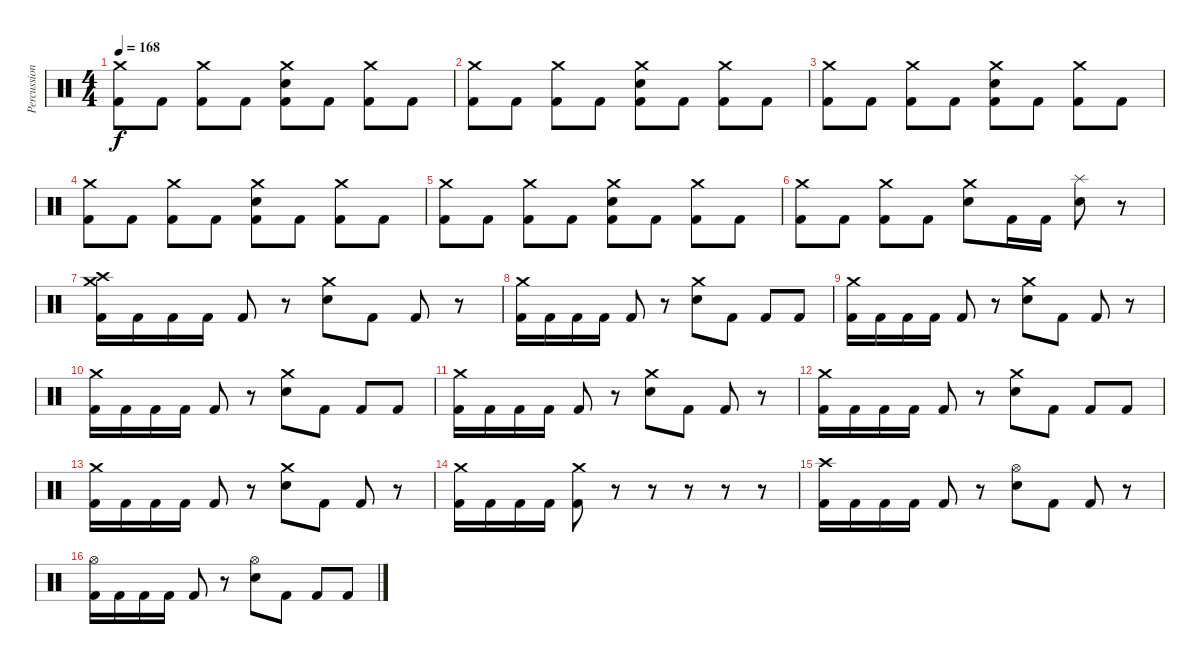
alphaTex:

\track ("Percussion" "Percussion") {instrument percussion}
\staff {score}
\articulation defaults
\ts (4 4)
\tempo 168
\clef neutral
\ks c
("Crash medium (hit)" "Kick (hit) 2").8{dy f} "Kick (hit) 2".8 ("Crash medium (hit)" "Kick (hit) 2").8 "Kick (hit) 2".8 ("Crash medium (hit)" "Snare (hit) 2" "Kick (hit) 2").8 "Kick (hit) 2".8 ("Crash medium (hit)" "Kick (hit) 2").8 "Kick (hit) 2".8 |
("Crash medium (hit)" "Kick (hit) 2").8 "Kick (hit) 2".8 ("Crash medium (hit)" "Kick (hit) 2").8 "Kick (hit) 2".8 ("Crash medium (hit)" "Snare (hit) 2" "Kick (hit) 2").8 "Kick (hit) 2".8 ("Crash medium (hit)" "Kick (hit) 2").8 "Kick (hit) 2".8 |
("Crash medium (hit)" "Kick (hit) 2").8 "Kick (hit) 2".8 ("Crash medium (hit)" "Kick (hit) 2").8 "Kick (hit) 2".8 ("Crash medium (hit)" "Snare (hit) 2" "Kick (hit) 2").8 "Kick (hit) 2".8 ("Crash medium (hit)" "Kick (hit) 2").8 "Kick (hit) 2".8 |
("Crash medium (hit)" "Kick (hit) 2").8 "Kick (hit) 2".8 ("Crash medium (hit)" "Kick (hit) 2").8 "Kick (hit) 2".8 ("Crash medium (hit)" "Snare (hit) 2" "Kick (hit) 2").8 "Kick (hit) 2".8 ("Crash medium (hit)" "Kick (hit) 2").8 "Kick (hit) 2".8 |
("Crash medium (hit)" "Kick (hit) 2").8 "Kick (hit) 2".8 ("Crash medium (hit)" "Kick (hit) 2").8 "Kick (hit) 2".8 ("Crash medium (hit)" "Snare (hit) 2" "Kick (hit) 2").8 "Kick (hit) 2".8 ("Crash medium (hit)" "Kick (hit) 2").8 "Kick (hit) 2".8 |
("Crash medium (hit)" "Kick (hit) 2").8 "Kick (hit) 2".8 ("Crash medium (hit)" "Kick (hit) 2").8 "Kick (hit) 2".8 ("Crash medium (hit)" "Snare (hit) 2").8 "Kick (hit) 2".16 "Kick (hit) 2".16 ("Splash (hit)" "Snare (hit) 2").8 r.8 |
("Crash high (hit)" "Crash medium (hit)" "Kick (hit) 2").16 "Kick (hit) 2".16 "Kick (hit) 2".16 "Kick (hit) 2".16 "Kick (hit) 2".8 r.8 ("Crash medium (hit)" "Snare (hit) 2").8 "Kick (hit) 2".8 "Kick (hit) 2".8 r.8 |
("Crash medium (hit)" "Kick (hit) 2").16 "Kick (hit) 2".16 "Kick (hit) 2".16 "Kick (hit) 2".16 "Kick (hit) 2".8 r.8 ("Crash medium (hit)" "Snare (hit) 2").8 "Kick (hit) 2".8 "Kick (hit) 2".8 "Kick (hit) 2".8 |
("Crash medium (hit)" "Kick (hit) 2").16 "Kick (hit) 2".16 "Kick (hit) 2".16 "Kick (hit) 2".16 "Kick (hit) 2".8 r.8 ("Crash medium (hit)" "Snare (hit) 2").8 "Kick (hit) 2".8 "Kick (hit) 2".8 r.8 |
("Crash medium (hit)" "Kick (hit) 2").16 "Kick (hit) 2".16 "Kick (hit) 2".16 "Kick (hit) 2".16 "Kick (hit) 2".8 r.8 ("Crash medium (hit)" "Snare (hit) 2").8 "Kick (hit) 2".8 "Kick (hit) 2".8 "Kick (hit) 2".8 |
("Crash medium (hit)" "Kick (hit) 2").16 "Kick (hit) 2".16 "Kick (hit) 2".16 "Kick (hit) 2".16 "Kick (hit) 2".8 r.8 ("Crash medium (hit)" "Snare (hit) 2").8 "Kick (hit) 2".8 "Kick (hit) 2".8 r.8 |
("Crash medium (hit)" "Kick (hit) 2").16 "Kick (hit) 2".16 "Kick (hit) 2".16 "Kick (hit) 2".16 "Kick (hit) 2".8 r.8 ("Crash medium (hit)" "Snare (hit) 2").8 "Kick (hit) 2".8 "Kick (hit) 2".8 "Kick (hit) 2".8 |
("Crash medium (hit)" "Kick (hit) 2").16 "Kick (hit) 2".16 "Kick (hit) 2".16 "Kick (hit) 2".16 "Kick (hit) 2".8 r.8 ("Crash medium (hit)" "Snare (hit) 2").8 "Kick (hit) 2".8 "Kick (hit) 2".8 r.8 |
("Crash medium (hit)" "Kick (hit) 2").16 "Kick (hit) 2".16 "Kick (hit) 2".16 "Kick (hit) 2".16 ("Crash medium (hit)" "Kick (hit) 2").8 r.8{volume 0} r.8 r.8 r.8 r.8 |
("Crash high (hit)" "Kick (hit) 2").16{volume 16} "Kick (hit) 2".16 "Kick (hit) 2".16 "Kick (hit) 2".16 "Kick (hit) 2".8 r.8 ("Hi-Hat (open)" "Snare (hit) 2").8 "Kick (hit) 2".8 "Kick (hit) 2".8 r.8 |
("Hi-Hat (open)" "Kick (hit) 2").16 "Kick (hit) 2".16 "Kick (hit) 2".16 "Kick (hit) 2".16 "Kick (hit) 2".8 r.8 ("Hi-Hat (open)" "Snare (hit) 2").8 "Kick (hit) 2".8 "Kick (hit) 2".8 "Kick (hit) 2".8
